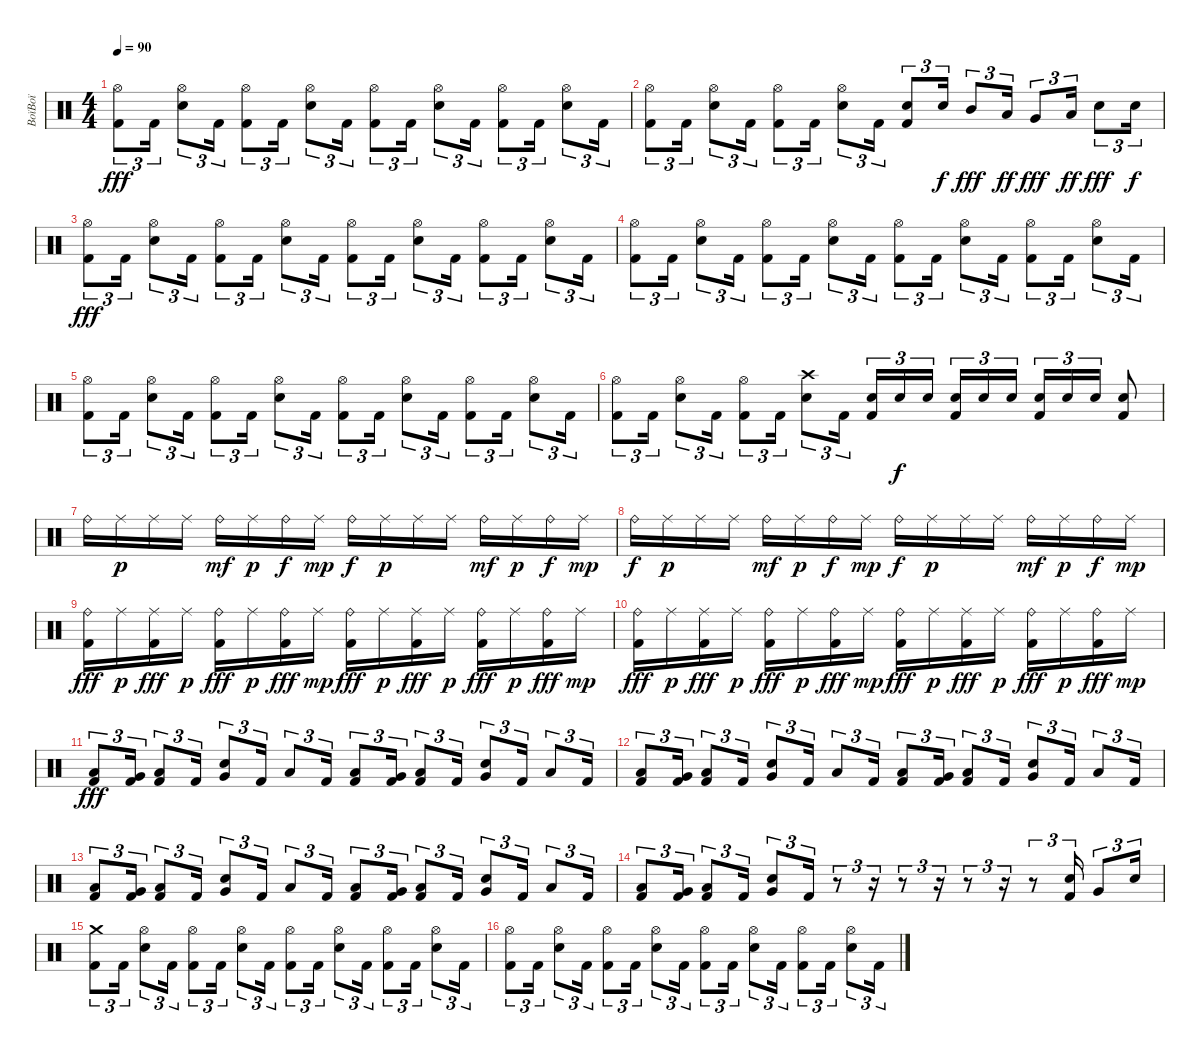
\track ("BoïBoï" "BoïBoï") {instrument percussion}
\staff {score}
\articulation defaults
\ts (4 4)
\tempo 90
\clef neutral
\ks c
("Hi-Hat (open)" "Kick (hit) 2").8{tu (3 2) dy fff} "Kick (hit) 2".16{tu (3 2)} ("Hi-Hat (open)" "Electric Snare (hit)").8{tu (3 2)} "Kick (hit) 2".16{tu (3 2)} ("Hi-Hat (open)" "Kick (hit) 2").8{tu (3 2)} "Kick (hit) 2".16{tu (3 2)} ("Hi-Hat (open)" "Electric Snare (hit)").8{tu (3 2)} "Kick (hit) 2".16{tu (3 2)} ("Hi-Hat (open)" "Kick (hit) 2").8{tu (3 2)} "Kick (hit) 2".16{tu (3 2)} ("Hi-Hat (open)" "Electric Snare (hit)").8{tu (3 2)} "Kick (hit) 2".16{tu (3 2)} ("Hi-Hat (open)" "Kick (hit) 2").8{tu (3 2)} "Kick (hit) 2".16{tu (3 2)} ("Hi-Hat (open)" "Electric Snare (hit)").8{tu (3 2)} "Kick (hit) 2".16{tu (3 2)} |
("Hi-Hat (open)" "Kick (hit) 2").8{tu (3 2)} "Kick (hit) 2".16{tu (3 2)} ("Hi-Hat (open)" "Electric Snare (hit)").8{tu (3 2)} "Kick (hit) 2".16{tu (3 2)} ("Hi-Hat (open)" "Kick (hit) 2").8{tu (3 2)} "Kick (hit) 2".16{tu (3 2)} ("Hi-Hat (open)" "Electric Snare (hit)").8{tu (3 2)} "Kick (hit) 2".16{tu (3 2)} ("Electric Snare (hit)" "Kick (hit) 2").8{tu (3 2)} "Electric Snare (hit)".16{tu (3 2) dy f} "Mid Tom (hit)".8{tu (3 2) dy fff} "Low Tom (hit)".16{tu (3 2) dy ff} "Very Low Tom (hit)".8{tu (3 2) dy fff} "Low Floor Tom (hit)".16{tu (3 2) dy ff} "Electric Snare (hit)".8{tu (3 2) dy fff} "Electric Snare (hit)".16{tu (3 2) dy f} |
("Hi-Hat (open)" "Kick (hit) 2").8{tu (3 2) dy fff} "Kick (hit) 2".16{tu (3 2)} ("Hi-Hat (open)" "Electric Snare (hit)").8{tu (3 2)} "Kick (hit) 2".16{tu (3 2)} ("Hi-Hat (open)" "Kick (hit) 2").8{tu (3 2)} "Kick (hit) 2".16{tu (3 2)} ("Hi-Hat (open)" "Electric Snare (hit)").8{tu (3 2)} "Kick (hit) 2".16{tu (3 2)} ("Hi-Hat (open)" "Kick (hit) 2").8{tu (3 2)} "Kick (hit) 2".16{tu (3 2)} ("Hi-Hat (open)" "Electric Snare (hit)").8{tu (3 2)} "Kick (hit) 2".16{tu (3 2)} ("Hi-Hat (open)" "Kick (hit) 2").8{tu (3 2)} "Kick (hit) 2".16{tu (3 2)} ("Hi-Hat (open)" "Electric Snare (hit)").8{tu (3 2)} "Kick (hit) 2".16{tu (3 2)} |
("Hi-Hat (open)" "Kick (hit) 2").8{tu (3 2)} "Kick (hit) 2".16{tu (3 2)} ("Hi-Hat (open)" "Electric Snare (hit)").8{tu (3 2)} "Kick (hit) 2".16{tu (3 2)} ("Hi-Hat (open)" "Kick (hit) 2").8{tu (3 2)} "Kick (hit) 2".16{tu (3 2)} ("Hi-Hat (open)" "Electric Snare (hit)").8{tu (3 2)} "Kick (hit) 2".16{tu (3 2)} ("Hi-Hat (open)" "Kick (hit) 2").8{tu (3 2)} "Kick (hit) 2".16{tu (3 2)} ("Hi-Hat (open)" "Electric Snare (hit)").8{tu (3 2)} "Kick (hit) 2".16{tu (3 2)} ("Hi-Hat (open)" "Kick (hit) 2").8{tu (3 2)} "Kick (hit) 2".16{tu (3 2)} ("Hi-Hat (open)" "Electric Snare (hit)").8{tu (3 2)} "Kick (hit) 2".16{tu (3 2)} |
("Hi-Hat (open)" "Kick (hit) 2").8{tu (3 2)} "Kick (hit) 2".16{tu (3 2)} ("Hi-Hat (open)" "Electric Snare (hit)").8{tu (3 2)} "Kick (hit) 2".16{tu (3 2)} ("Hi-Hat (open)" "Kick (hit) 2").8{tu (3 2)} "Kick (hit) 2".16{tu (3 2)} ("Hi-Hat (open)" "Electric Snare (hit)").8{tu (3 2)} "Kick (hit) 2".16{tu (3 2)} ("Hi-Hat (open)" "Kick (hit) 2").8{tu (3 2)} "Kick (hit) 2".16{tu (3 2)} ("Hi-Hat (open)" "Electric Snare (hit)").8{tu (3 2)} "Kick (hit) 2".16{tu (3 2)} ("Hi-Hat (open)" "Kick (hit) 2").8{tu (3 2)} "Kick (hit) 2".16{tu (3 2)} ("Hi-Hat (open)" "Electric Snare (hit)").8{tu (3 2)} "Kick (hit) 2".16{tu (3 2)} |
("Hi-Hat (open)" "Kick (hit) 2").8{tu (3 2)} "Kick (hit) 2".16{tu (3 2)} ("Hi-Hat (open)" "Electric Snare (hit)").8{tu (3 2)} "Kick (hit) 2".16{tu (3 2)} ("Hi-Hat (open)" "Kick (hit) 2").8{tu (3 2)} "Kick (hit) 2".16{tu (3 2)} ("Crash high (hit)" "Electric Snare (hit)").8{tu (3 2)} "Kick (hit) 2".16{tu (3 2)} ("Electric Snare (hit)" "Kick (hit) 2").16{tu (3 2)} "Electric Snare (hit)".16{tu (3 2) dy f} "Electric Snare (hit)".16{tu (3 2) beam splitsecondary} ("Electric Snare (hit)" "Kick (hit) 2").16{tu (3 2)} "Electric Snare (hit)".16{tu (3 2)} "Electric Snare (hit)".16{tu (3 2)} ("Electric Snare (hit)" "Kick (hit) 2").16{tu (3 2)} "Electric Snare (hit)".16{tu (3 2)} "Electric Snare (hit)".16{tu (3 2)} ("Electric Snare (hit)" "Kick (hit) 2").8 |
"Ride (bell)".16 "Ride (middle)".16{dy p} "Ride (middle)".16 "Ride (middle)".16 "Ride (bell)".16{dy mf} "Ride (middle)".16{dy p} "Ride (bell)".16{dy f} "Ride (middle)".16{dy mp} "Ride (bell)".16{dy f} "Ride (middle)".16{dy p} "Ride (middle)".16 "Ride (middle)".16 "Ride (bell)".16{dy mf} "Ride (middle)".16{dy p} "Ride (bell)".16{dy f} "Ride (middle)".16{dy mp} |
"Ride (bell)".16{dy f} "Ride (middle)".16{dy p} "Ride (middle)".16 "Ride (middle)".16 "Ride (bell)".16{dy mf} "Ride (middle)".16{dy p} "Ride (bell)".16{dy f} "Ride (middle)".16{dy mp} "Ride (bell)".16{dy f} "Ride (middle)".16{dy p} "Ride (middle)".16 "Ride (middle)".16 "Ride (bell)".16{dy mf} "Ride (middle)".16{dy p} "Ride (bell)".16{dy f} "Ride (middle)".16{dy mp} |
("Ride (bell)" "Kick (hit) 2").16{dy fff} "Ride (middle)".16{dy p} ("Ride (middle)" "Kick (hit) 2").16{dy fff} "Ride (middle)".16{dy p} ("Ride (bell)" "Kick (hit) 2").16{dy fff} "Ride (middle)".16{dy p} ("Ride (bell)" "Kick (hit) 2").16{dy fff} "Ride (middle)".16{dy mp} ("Ride (bell)" "Kick (hit) 2").16{dy fff} "Ride (middle)".16{dy p} ("Ride (middle)" "Kick (hit) 2").16{dy fff} "Ride (middle)".16{dy p} ("Ride (bell)" "Kick (hit) 2").16{dy fff} "Ride (middle)".16{dy p} ("Ride (bell)" "Kick (hit) 2").16{dy fff} "Ride (middle)".16{dy mp} |
("Ride (bell)" "Kick (hit) 2").16{dy fff} "Ride (middle)".16{dy p} ("Ride (middle)" "Kick (hit) 2").16{dy fff} "Ride (middle)".16{dy p} ("Ride (bell)" "Kick (hit) 2").16{dy fff} "Ride (middle)".16{dy p} ("Ride (bell)" "Kick (hit) 2").16{dy fff} "Ride (middle)".16{dy mp} ("Ride (bell)" "Kick (hit) 2").16{dy fff} "Ride (middle)".16{dy p} ("Ride (middle)" "Kick (hit) 2").16{dy fff} "Ride (middle)".16{dy p} ("Ride (bell)" "Kick (hit) 2").16{dy fff} "Ride (middle)".16{dy p} ("Ride (bell)" "Kick (hit) 2").16{dy fff} "Ride (middle)".16{dy mp} |
("Low Floor Tom (hit)" "Kick (hit) 2").8{tu (3 2) dy fff} ("Very Low Tom (hit)" "Kick (hit) 2").16{tu (3 2)} ("Low Tom (hit)" "Kick (hit) 2").8{tu (3 2)} "Kick (hit) 2".16{tu (3 2)} ("Very Low Tom (hit)" "Electric Snare (hit)").8{tu (3 2)} "Kick (hit) 2".16{tu (3 2)} "Low Floor Tom (hit)".8{tu (3 2)} "Kick (hit) 2".16{tu (3 2)} ("Low Floor Tom (hit)" "Kick (hit) 2").8{tu (3 2)} ("Very Low Tom (hit)" "Kick (hit) 2").16{tu (3 2)} ("Low Tom (hit)" "Kick (hit) 2").8{tu (3 2)} "Kick (hit) 2".16{tu (3 2)} ("Very Low Tom (hit)" "Electric Snare (hit)").8{tu (3 2)} "Kick (hit) 2".16{tu (3 2)} "Low Floor Tom (hit)".8{tu (3 2)} "Kick (hit) 2".16{tu (3 2)} |
("Low Floor Tom (hit)" "Kick (hit) 2").8{tu (3 2)} ("Very Low Tom (hit)" "Kick (hit) 2").16{tu (3 2)} ("Low Tom (hit)" "Kick (hit) 2").8{tu (3 2)} "Kick (hit) 2".16{tu (3 2)} ("Very Low Tom (hit)" "Electric Snare (hit)").8{tu (3 2)} "Kick (hit) 2".16{tu (3 2)} "Low Floor Tom (hit)".8{tu (3 2)} "Kick (hit) 2".16{tu (3 2)} ("Low Floor Tom (hit)" "Kick (hit) 2").8{tu (3 2)} ("Very Low Tom (hit)" "Kick (hit) 2").16{tu (3 2)} ("Low Tom (hit)" "Kick (hit) 2").8{tu (3 2)} "Kick (hit) 2".16{tu (3 2)} ("Very Low Tom (hit)" "Electric Snare (hit)").8{tu (3 2)} "Kick (hit) 2".16{tu (3 2)} "Low Floor Tom (hit)".8{tu (3 2)} "Kick (hit) 2".16{tu (3 2)} |
("Low Floor Tom (hit)" "Kick (hit) 2").8{tu (3 2)} ("Very Low Tom (hit)" "Kick (hit) 2").16{tu (3 2)} ("Low Tom (hit)" "Kick (hit) 2").8{tu (3 2)} "Kick (hit) 2".16{tu (3 2)} ("Very Low Tom (hit)" "Electric Snare (hit)").8{tu (3 2)} "Kick (hit) 2".16{tu (3 2)} "Low Floor Tom (hit)".8{tu (3 2)} "Kick (hit) 2".16{tu (3 2)} ("Low Floor Tom (hit)" "Kick (hit) 2").8{tu (3 2)} ("Very Low Tom (hit)" "Kick (hit) 2").16{tu (3 2)} ("Low Tom (hit)" "Kick (hit) 2").8{tu (3 2)} "Kick (hit) 2".16{tu (3 2)} ("Very Low Tom (hit)" "Electric Snare (hit)").8{tu (3 2)} "Kick (hit) 2".16{tu (3 2)} "Low Floor Tom (hit)".8{tu (3 2)} "Kick (hit) 2".16{tu (3 2)} |
("Low Floor Tom (hit)" "Kick (hit) 2").8{tu (3 2)} ("Very Low Tom (hit)" "Kick (hit) 2").16{tu (3 2)} ("Low Tom (hit)" "Kick (hit) 2").8{tu (3 2)} "Kick (hit) 2".16{tu (3 2)} ("Very Low Tom (hit)" "Electric Snare (hit)").8{tu (3 2)} "Kick (hit) 2".16{tu (3 2)} r.8{tu (3 2)} r.16{tu (3 2)} r.8{tu (3 2)} r.16{tu (3 2)} r.8{tu (3 2)} r.16{tu (3 2)} r.8{tu (3 2)} ("Electric Snare (hit)" "Kick (hit) 2").16{tu (3 2)} "Very Low Tom (hit)".8{tu (3 2)} "Electric Snare (hit)".16{tu (3 2)} |
("Crash medium (hit)" "Kick (hit) 2").8{tu (3 2)} "Kick (hit) 2".16{tu (3 2)} ("Hi-Hat (open)" "Electric Snare (hit)").8{tu (3 2)} "Kick (hit) 2".16{tu (3 2)} ("Hi-Hat (open)" "Kick (hit) 2").8{tu (3 2)} "Kick (hit) 2".16{tu (3 2)} ("Hi-Hat (open)" "Electric Snare (hit)").8{tu (3 2)} "Kick (hit) 2".16{tu (3 2)} ("Hi-Hat (open)" "Kick (hit) 2").8{tu (3 2)} "Kick (hit) 2".16{tu (3 2)} ("Hi-Hat (open)" "Electric Snare (hit)").8{tu (3 2)} "Kick (hit) 2".16{tu (3 2)} ("Hi-Hat (open)" "Kick (hit) 2").8{tu (3 2)} "Kick (hit) 2".16{tu (3 2)} ("Hi-Hat (open)" "Electric Snare (hit)").8{tu (3 2)} "Kick (hit) 2".16{tu (3 2)} |
("Hi-Hat (open)" "Kick (hit) 2").8{tu (3 2)} "Kick (hit) 2".16{tu (3 2)} ("Hi-Hat (open)" "Electric Snare (hit)").8{tu (3 2)} "Kick (hit) 2".16{tu (3 2)} ("Hi-Hat (open)" "Kick (hit) 2").8{tu (3 2)} "Kick (hit) 2".16{tu (3 2)} ("Hi-Hat (open)" "Electric Snare (hit)").8{tu (3 2)} "Kick (hit) 2".16{tu (3 2)} ("Hi-Hat (open)" "Kick (hit) 2").8{tu (3 2)} "Kick (hit) 2".16{tu (3 2)} ("Hi-Hat (open)" "Electric Snare (hit)").8{tu (3 2)} "Kick (hit) 2".16{tu (3 2)} ("Hi-Hat (open)" "Kick (hit) 2").8{tu (3 2)} "Kick (hit) 2".16{tu (3 2)} ("Hi-Hat (open)" "Electric Snare (hit)").8{tu (3 2)} "Kick (hit) 2".16{tu (3 2)}
